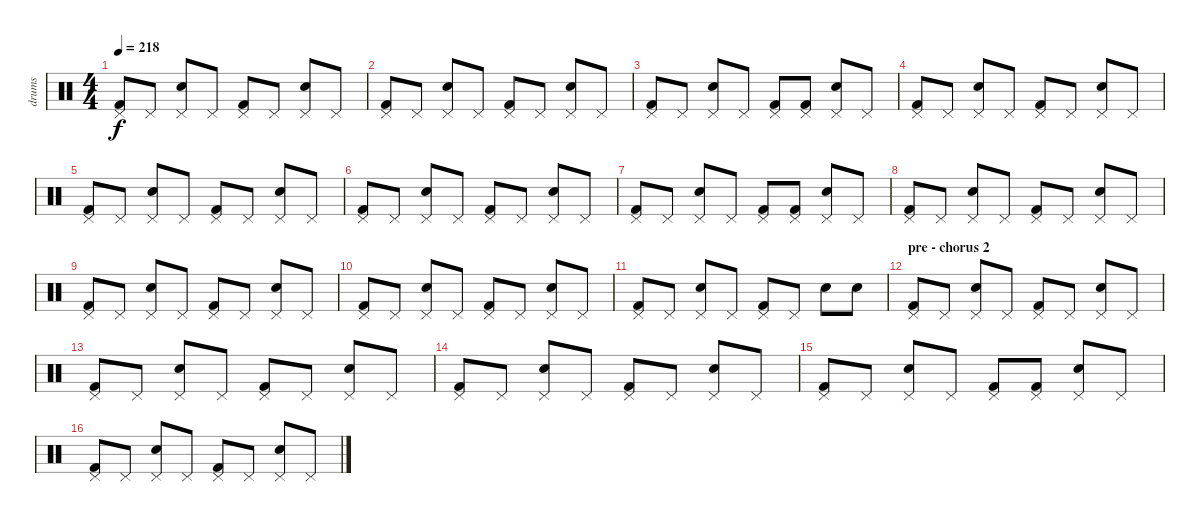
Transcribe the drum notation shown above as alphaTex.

\track ("drums" "drums") {instrument percussion}
\staff {score}
\articulation defaults
\ts (4 4)
\tempo 218
\clef neutral
\ks c
("Kick (hit) 2" "Pedal Hi-Hat (hit)").8{dy f} "Pedal Hi-Hat (hit)".8 ("Snare (hit) 2" "Pedal Hi-Hat (hit)").8 "Pedal Hi-Hat (hit)".8 ("Kick (hit) 2" "Pedal Hi-Hat (hit)").8 "Pedal Hi-Hat (hit)".8 ("Snare (hit) 2" "Pedal Hi-Hat (hit)").8 "Pedal Hi-Hat (hit)".8 |
("Kick (hit) 2" "Pedal Hi-Hat (hit)").8 "Pedal Hi-Hat (hit)".8 ("Snare (hit) 2" "Pedal Hi-Hat (hit)").8 "Pedal Hi-Hat (hit)".8 ("Kick (hit) 2" "Pedal Hi-Hat (hit)").8 "Pedal Hi-Hat (hit)".8 ("Snare (hit) 2" "Pedal Hi-Hat (hit)").8 "Pedal Hi-Hat (hit)".8 |
("Kick (hit) 2" "Pedal Hi-Hat (hit)").8 "Pedal Hi-Hat (hit)".8 ("Snare (hit) 2" "Pedal Hi-Hat (hit)").8 "Pedal Hi-Hat (hit)".8 ("Kick (hit) 2" "Pedal Hi-Hat (hit)").8 ("Kick (hit) 2" "Pedal Hi-Hat (hit)").8 ("Snare (hit) 2" "Pedal Hi-Hat (hit)").8 "Pedal Hi-Hat (hit)".8 |
("Kick (hit) 2" "Pedal Hi-Hat (hit)").8 "Pedal Hi-Hat (hit)".8 ("Snare (hit) 2" "Pedal Hi-Hat (hit)").8 "Pedal Hi-Hat (hit)".8 ("Kick (hit) 2" "Pedal Hi-Hat (hit)").8 "Pedal Hi-Hat (hit)".8 ("Snare (hit) 2" "Pedal Hi-Hat (hit)").8 "Pedal Hi-Hat (hit)".8 |
("Kick (hit) 2" "Pedal Hi-Hat (hit)").8 "Pedal Hi-Hat (hit)".8 ("Snare (hit) 2" "Pedal Hi-Hat (hit)").8 "Pedal Hi-Hat (hit)".8 ("Kick (hit) 2" "Pedal Hi-Hat (hit)").8 "Pedal Hi-Hat (hit)".8 ("Snare (hit) 2" "Pedal Hi-Hat (hit)").8 "Pedal Hi-Hat (hit)".8 |
("Kick (hit) 2" "Pedal Hi-Hat (hit)").8 "Pedal Hi-Hat (hit)".8 ("Snare (hit) 2" "Pedal Hi-Hat (hit)").8 "Pedal Hi-Hat (hit)".8 ("Kick (hit) 2" "Pedal Hi-Hat (hit)").8 "Pedal Hi-Hat (hit)".8 ("Snare (hit) 2" "Pedal Hi-Hat (hit)").8 "Pedal Hi-Hat (hit)".8 |
("Kick (hit) 2" "Pedal Hi-Hat (hit)").8 "Pedal Hi-Hat (hit)".8 ("Snare (hit) 2" "Pedal Hi-Hat (hit)").8 "Pedal Hi-Hat (hit)".8 ("Kick (hit) 2" "Pedal Hi-Hat (hit)").8 ("Kick (hit) 2" "Pedal Hi-Hat (hit)").8 ("Snare (hit) 2" "Pedal Hi-Hat (hit)").8 "Pedal Hi-Hat (hit)".8 |
("Kick (hit) 2" "Pedal Hi-Hat (hit)").8 "Pedal Hi-Hat (hit)".8 ("Snare (hit) 2" "Pedal Hi-Hat (hit)").8 "Pedal Hi-Hat (hit)".8 ("Kick (hit) 2" "Pedal Hi-Hat (hit)").8 "Pedal Hi-Hat (hit)".8 ("Snare (hit) 2" "Pedal Hi-Hat (hit)").8 "Pedal Hi-Hat (hit)".8 |
("Kick (hit) 2" "Pedal Hi-Hat (hit)").8 "Pedal Hi-Hat (hit)".8 ("Snare (hit) 2" "Pedal Hi-Hat (hit)").8 "Pedal Hi-Hat (hit)".8 ("Kick (hit) 2" "Pedal Hi-Hat (hit)").8 "Pedal Hi-Hat (hit)".8 ("Snare (hit) 2" "Pedal Hi-Hat (hit)").8 "Pedal Hi-Hat (hit)".8 |
("Kick (hit) 2" "Pedal Hi-Hat (hit)").8 "Pedal Hi-Hat (hit)".8 ("Snare (hit) 2" "Pedal Hi-Hat (hit)").8 "Pedal Hi-Hat (hit)".8 ("Kick (hit) 2" "Pedal Hi-Hat (hit)").8 "Pedal Hi-Hat (hit)".8 ("Snare (hit) 2" "Pedal Hi-Hat (hit)").8 "Pedal Hi-Hat (hit)".8 |
("Kick (hit) 2" "Pedal Hi-Hat (hit)").8 "Pedal Hi-Hat (hit)".8 ("Snare (hit) 2" "Pedal Hi-Hat (hit)").8 "Pedal Hi-Hat (hit)".8 ("Kick (hit) 2" "Pedal Hi-Hat (hit)").8 "Pedal Hi-Hat (hit)".8 "Snare (hit) 2"{tr (38 16)}.8 "Snare (hit) 2"{tr (38 16)}.8 |
\section ("" "pre - chorus 2")
("Kick (hit) 2" "Pedal Hi-Hat (hit)").8 "Pedal Hi-Hat (hit)".8 ("Snare (hit) 2" "Pedal Hi-Hat (hit)").8 "Pedal Hi-Hat (hit)".8 ("Kick (hit) 2" "Pedal Hi-Hat (hit)").8 "Pedal Hi-Hat (hit)".8 ("Snare (hit) 2" "Pedal Hi-Hat (hit)").8 "Pedal Hi-Hat (hit)".8 |
("Kick (hit) 2" "Pedal Hi-Hat (hit)").8 "Pedal Hi-Hat (hit)".8 ("Snare (hit) 2" "Pedal Hi-Hat (hit)").8 "Pedal Hi-Hat (hit)".8 ("Kick (hit) 2" "Pedal Hi-Hat (hit)").8 "Pedal Hi-Hat (hit)".8 ("Snare (hit) 2" "Pedal Hi-Hat (hit)").8 "Pedal Hi-Hat (hit)".8 |
("Kick (hit) 2" "Pedal Hi-Hat (hit)").8 "Pedal Hi-Hat (hit)".8 ("Snare (hit) 2" "Pedal Hi-Hat (hit)").8 "Pedal Hi-Hat (hit)".8 ("Kick (hit) 2" "Pedal Hi-Hat (hit)").8 "Pedal Hi-Hat (hit)".8 ("Snare (hit) 2" "Pedal Hi-Hat (hit)").8 "Pedal Hi-Hat (hit)".8 |
("Kick (hit) 2" "Pedal Hi-Hat (hit)").8 "Pedal Hi-Hat (hit)".8 ("Snare (hit) 2" "Pedal Hi-Hat (hit)").8 "Pedal Hi-Hat (hit)".8 ("Kick (hit) 2" "Pedal Hi-Hat (hit)").8 ("Kick (hit) 2" "Pedal Hi-Hat (hit)").8 ("Snare (hit) 2" "Pedal Hi-Hat (hit)").8 "Pedal Hi-Hat (hit)".8 |
("Kick (hit) 2" "Pedal Hi-Hat (hit)").8 "Pedal Hi-Hat (hit)".8 ("Snare (hit) 2" "Pedal Hi-Hat (hit)").8 "Pedal Hi-Hat (hit)".8 ("Kick (hit) 2" "Pedal Hi-Hat (hit)").8 "Pedal Hi-Hat (hit)".8 ("Snare (hit) 2" "Pedal Hi-Hat (hit)").8 "Pedal Hi-Hat (hit)".8
